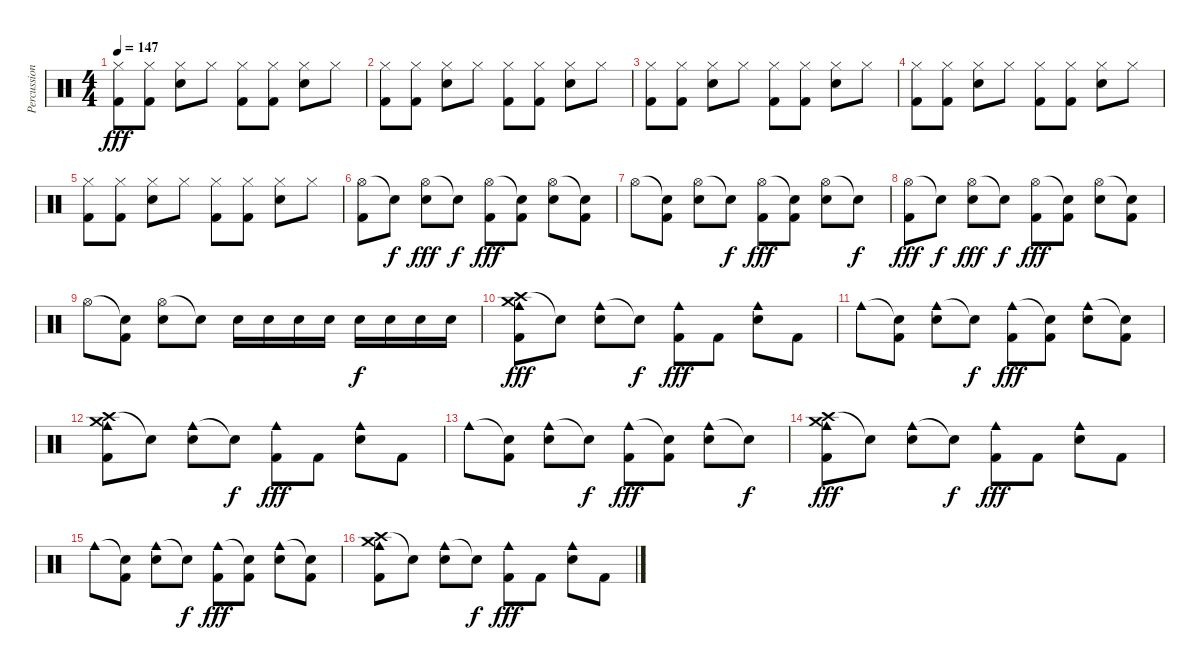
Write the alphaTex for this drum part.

\track ("Percussion" "Percussion") {instrument percussion}
\staff {score}
\articulation defaults
\ts (4 4)
\tempo 147
\clef neutral
\ks c
("Hi-Hat (closed)" "Kick (hit) 2").8{dy fff} ("Hi-Hat (closed)" "Kick (hit) 2").8 ("Hi-Hat (closed)" "Electric Snare (hit)").8 "Hi-Hat (closed)".8 ("Hi-Hat (closed)" "Kick (hit) 2").8 ("Hi-Hat (closed)" "Kick (hit) 2").8 ("Hi-Hat (closed)" "Electric Snare (hit)").8 "Hi-Hat (closed)".8 |
("Hi-Hat (closed)" "Kick (hit) 2").8 ("Hi-Hat (closed)" "Kick (hit) 2").8 ("Hi-Hat (closed)" "Electric Snare (hit)").8 "Hi-Hat (closed)".8 ("Hi-Hat (closed)" "Kick (hit) 2").8 ("Hi-Hat (closed)" "Kick (hit) 2").8 ("Hi-Hat (closed)" "Electric Snare (hit)").8 "Hi-Hat (closed)".8 |
("Hi-Hat (closed)" "Kick (hit) 2").8 ("Hi-Hat (closed)" "Kick (hit) 2").8 ("Hi-Hat (closed)" "Electric Snare (hit)").8 "Hi-Hat (closed)".8 ("Hi-Hat (closed)" "Kick (hit) 2").8 ("Hi-Hat (closed)" "Kick (hit) 2").8 ("Hi-Hat (closed)" "Electric Snare (hit)").8 "Hi-Hat (closed)".8 |
("Hi-Hat (closed)" "Kick (hit) 2").8 ("Hi-Hat (closed)" "Kick (hit) 2").8 ("Hi-Hat (closed)" "Electric Snare (hit)").8 "Hi-Hat (closed)".8 ("Hi-Hat (closed)" "Kick (hit) 2").8 ("Hi-Hat (closed)" "Kick (hit) 2").8 ("Hi-Hat (closed)" "Electric Snare (hit)").8 "Hi-Hat (closed)".8 |
("Hi-Hat (closed)" "Kick (hit) 2").8 ("Hi-Hat (closed)" "Kick (hit) 2").8 ("Hi-Hat (closed)" "Electric Snare (hit)").8 "Hi-Hat (closed)".8 ("Hi-Hat (closed)" "Kick (hit) 2").8 ("Hi-Hat (closed)" "Kick (hit) 2").8 ("Hi-Hat (closed)" "Electric Snare (hit)").8 "Hi-Hat (closed)".8 |
("Hi-Hat (open)" "Kick (hit) 2").8 "Snare (hit)"{t}.8{dy f} ("Hi-Hat (open)" "Electric Snare (hit)").8{dy fff} "Snare (hit)"{t}.8{dy f} ("Hi-Hat (open)" "Kick (hit) 2").8{dy fff} ("Snare (hit)"{t} "Kick (hit) 2").8 ("Hi-Hat (open)" "Electric Snare (hit)").8 ("Snare (hit)"{t} "Kick (hit) 2").8 |
"Hi-Hat (open)".8 ("Snare (hit)"{t} "Kick (hit) 2").8 ("Hi-Hat (open)" "Electric Snare (hit)").8 "Snare (hit)"{t}.8{dy f} ("Hi-Hat (open)" "Kick (hit) 2").8{dy fff} ("Snare (hit)"{t} "Kick (hit) 2").8 ("Hi-Hat (open)" "Electric Snare (hit)").8 "Snare (hit)"{t}.8{dy f} |
("Hi-Hat (open)" "Kick (hit) 2").8{dy fff} "Snare (hit)"{t}.8{dy f} ("Hi-Hat (open)" "Electric Snare (hit)").8{dy fff} "Snare (hit)"{t}.8{dy f} ("Hi-Hat (open)" "Kick (hit) 2").8{dy fff} ("Snare (hit)"{t} "Kick (hit) 2").8 ("Hi-Hat (open)" "Electric Snare (hit)").8 ("Snare (hit)"{t} "Kick (hit) 2").8 |
"Hi-Hat (open)".8 ("Snare (hit)"{t} "Kick (hit) 2").8 ("Hi-Hat (open)" "Electric Snare (hit)").8 "Snare (hit)"{t}.8 "Electric Snare (hit)".16 "Electric Snare (hit)".16 "Electric Snare (hit)".16 "Electric Snare (hit)".16 "Electric Snare (hit)".16{dy f} "Electric Snare (hit)".16 "Electric Snare (hit)".16 "Electric Snare (hit)".16 |
("Crash high (hit)" "Crash medium (hit)" "Cowbell medium (hit)" "Kick (hit) 2").8{dy fff} "Snare (hit)"{t}.8 ("Cowbell medium (hit)" "Electric Snare (hit)").8 "Snare (hit)"{t}.8{dy f} ("Cowbell medium (hit)" "Kick (hit) 2").8{dy fff} "Kick (hit) 2".8 ("Cowbell medium (hit)" "Electric Snare (hit)").8 "Kick (hit) 2".8 |
"Cowbell medium (hit)".8 ("Snare (hit)"{t} "Kick (hit) 2").8 ("Cowbell medium (hit)" "Electric Snare (hit)").8 "Snare (hit)"{t}.8{dy f} ("Cowbell medium (hit)" "Kick (hit) 2").8{dy fff} ("Snare (hit)"{t} "Kick (hit) 2").8 ("Cowbell medium (hit)" "Electric Snare (hit)").8 ("Snare (hit)"{t} "Kick (hit) 2").8 |
("Crash high (hit)" "Crash medium (hit)" "Cowbell medium (hit)" "Kick (hit) 2").8 "Snare (hit)"{t}.8 ("Cowbell medium (hit)" "Electric Snare (hit)").8 "Snare (hit)"{t}.8{dy f} ("Cowbell medium (hit)" "Kick (hit) 2").8{dy fff} "Kick (hit) 2".8 ("Cowbell medium (hit)" "Electric Snare (hit)").8 "Kick (hit) 2".8 |
"Cowbell medium (hit)".8 ("Snare (hit)"{t} "Kick (hit) 2").8 ("Cowbell medium (hit)" "Electric Snare (hit)").8 "Snare (hit)"{t}.8{dy f} ("Cowbell medium (hit)" "Kick (hit) 2").8{dy fff} ("Snare (hit)"{t} "Kick (hit) 2").8 ("Cowbell medium (hit)" "Electric Snare (hit)").8 "Snare (hit)"{t}.8{dy f} |
("Crash high (hit)" "Crash medium (hit)" "Cowbell medium (hit)" "Kick (hit) 2").8{dy fff} "Snare (hit)"{t}.8 ("Cowbell medium (hit)" "Electric Snare (hit)").8 "Snare (hit)"{t}.8{dy f} ("Cowbell medium (hit)" "Kick (hit) 2").8{dy fff} "Kick (hit) 2".8 ("Cowbell medium (hit)" "Electric Snare (hit)").8 "Kick (hit) 2".8 |
"Cowbell medium (hit)".8 ("Snare (hit)"{t} "Kick (hit) 2").8 ("Cowbell medium (hit)" "Electric Snare (hit)").8 "Snare (hit)"{t}.8{dy f} ("Cowbell medium (hit)" "Kick (hit) 2").8{dy fff} ("Snare (hit)"{t} "Kick (hit) 2").8 ("Cowbell medium (hit)" "Electric Snare (hit)").8 ("Snare (hit)"{t} "Kick (hit) 2").8 |
("Crash high (hit)" "Crash medium (hit)" "Cowbell medium (hit)" "Kick (hit) 2").8 "Snare (hit)"{t}.8 ("Cowbell medium (hit)" "Electric Snare (hit)").8 "Snare (hit)"{t}.8{dy f} ("Cowbell medium (hit)" "Kick (hit) 2").8{dy fff} "Kick (hit) 2".8 ("Cowbell medium (hit)" "Electric Snare (hit)").8 "Kick (hit) 2".8
